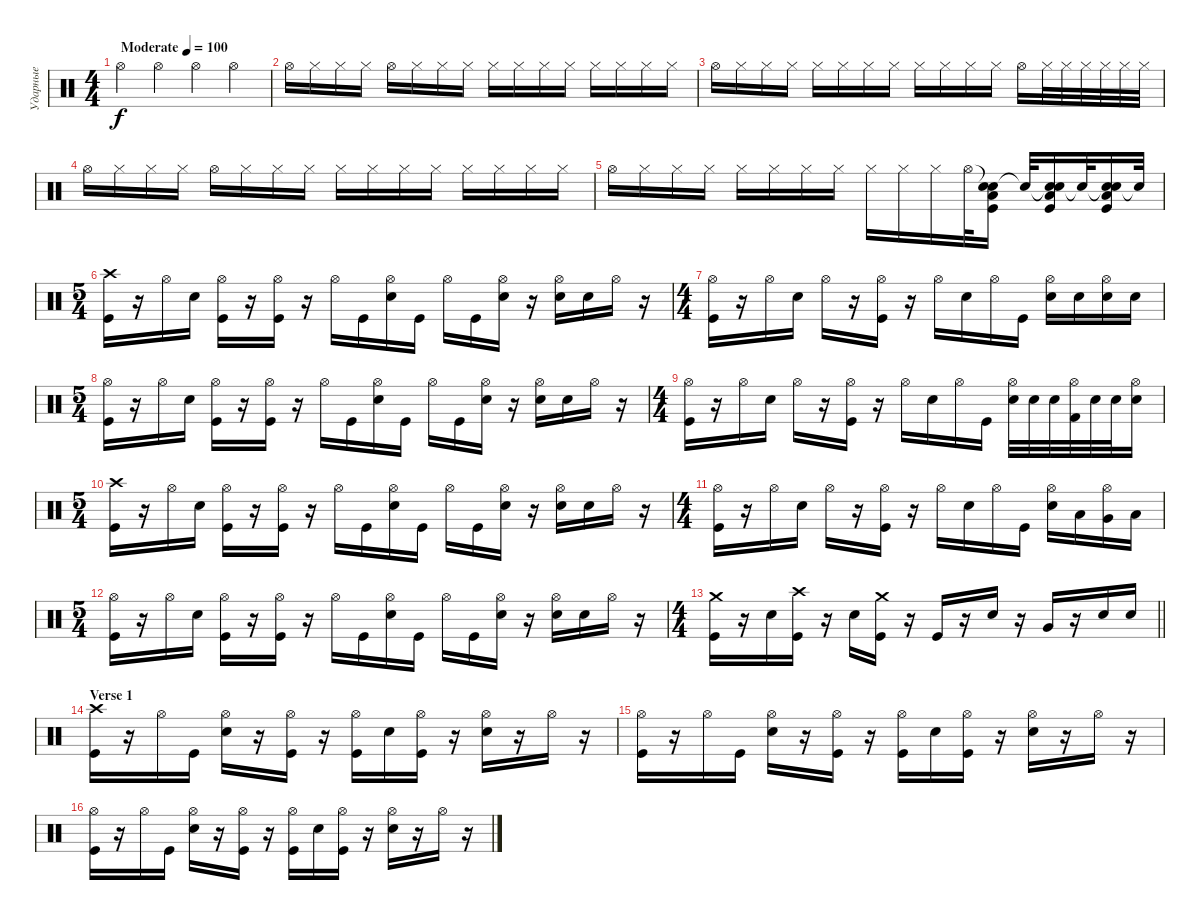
\track ("Ударные" "Ударные") {instrument percussion}
\staff {score}
\articulation defaults
\ts (4 4)
\tempo (100 "Moderate")
\clef neutral
\ks c "Hi-Hat (open)".4{dy f} "Hi-Hat (open)".4 "Hi-Hat (open)".4 "Hi-Hat (open)".4
|
"Hi-Hat (open)".16 "Hi-Hat (closed)".16 "Hi-Hat (closed)".16 "Hi-Hat (closed)".16 "Hi-Hat (open)".16 "Hi-Hat (closed)".16 "Hi-Hat (closed)".16 "Hi-Hat (closed)".16 "Hi-Hat (closed)".16 "Hi-Hat (closed)".16 "Hi-Hat (closed)".16 "Hi-Hat (closed)".16 "Hi-Hat (closed)".16 "Hi-Hat (closed)".16 "Hi-Hat (closed)".16 "Hi-Hat (closed)".16 |
"Hi-Hat (open)".16 "Hi-Hat (closed)".16 "Hi-Hat (closed)".16 "Hi-Hat (closed)".16 "Hi-Hat (closed)".16 "Hi-Hat (closed)".16 "Hi-Hat (closed)".16 "Hi-Hat (closed)".16 "Hi-Hat (closed)".16 "Hi-Hat (closed)".16 "Hi-Hat (closed)".16 "Hi-Hat (closed)".16 "Hi-Hat (open)".16 "Hi-Hat (closed)".32 "Hi-Hat (closed)".32 "Hi-Hat (closed)".32 "Hi-Hat (closed)".32 "Hi-Hat (closed)".32 "Hi-Hat (closed)".32 |
"Hi-Hat (open)".16 "Hi-Hat (closed)".16 "Hi-Hat (closed)".16 "Hi-Hat (closed)".16 "Hi-Hat (open)".16 "Hi-Hat (closed)".16 "Hi-Hat (closed)".16 "Hi-Hat (closed)".16 "Hi-Hat (closed)".16 "Hi-Hat (closed)".16 "Hi-Hat (closed)".16 "Hi-Hat (closed)".16 "Hi-Hat (closed)".16 "Hi-Hat (closed)".16 "Hi-Hat (closed)".16 "Hi-Hat (closed)".16 |
"Hi-Hat (open)".16 "Hi-Hat (closed)".16 "Hi-Hat (closed)".16 "Hi-Hat (closed)".16 "Hi-Hat (closed)".16 "Hi-Hat (closed)".16 "Hi-Hat (closed)".16 "Hi-Hat (closed)".16 "Hi-Hat (closed)".16 "Hi-Hat (closed)".16 "Hi-Hat (closed)".16 "Hi-Hat (open)".32 ("Snare (hit)"{t} "Snare (hit) 2" "Low Floor Tom (hit)" "Kick (hit)").16 "Snare (hit)"{t}.32 ("Snare (hit)"{t} "Snare (hit) 2" "Low Floor Tom (hit)" "Kick (hit)").16 "Snare (hit)"{t}.32 ("Snare (hit)"{t} "Snare (hit) 2" "Low Floor Tom (hit)" "Kick (hit)").16 "Snare (hit)"{t}.32 |
\ts (5 4)
("Crash high (hit)" "Kick (hit)").16 r.16 "Hi-Hat (open)".16 "Snare (hit) 2".16 ("Hi-Hat (open)" "Kick (hit)").16 r.16 ("Hi-Hat (open)" "Kick (hit)").16 r.16 "Hi-Hat (open)".16 "Kick (hit)".16 ("Hi-Hat (open)" "Snare (hit) 2").16 "Kick (hit)".16 "Hi-Hat (open)".16 "Kick (hit)".16 ("Hi-Hat (open)" "Snare (hit) 2").16 r.16 ("Hi-Hat (open)" "Snare (hit) 2").16 "Snare (hit) 2".16 "Hi-Hat (open)".16 r.16 |
\ts (4 4)
("Hi-Hat (open)" "Kick (hit)").16 r.16 "Hi-Hat (open)".16 "Snare (hit) 2".16 "Hi-Hat (open)".16 r.16 ("Hi-Hat (open)" "Kick (hit)").16 r.16 "Hi-Hat (open)".16 "Snare (hit) 2".16 "Hi-Hat (open)".16 "Kick (hit)".16 ("Hi-Hat (open)" "Snare (hit) 2").16 "Snare (hit) 2".16 ("Hi-Hat (open)" "Snare (hit) 2").16 "Snare (hit) 2".16 |
\ts (5 4)
("Hi-Hat (open)" "Kick (hit)").16 r.16 "Hi-Hat (open)".16 "Snare (hit) 2".16 ("Hi-Hat (open)" "Kick (hit)").16 r.16 ("Hi-Hat (open)" "Kick (hit)").16 r.16 "Hi-Hat (open)".16 "Kick (hit)".16 ("Hi-Hat (open)" "Snare (hit) 2").16 "Kick (hit)".16 "Hi-Hat (open)".16 "Kick (hit)".16 ("Hi-Hat (open)" "Snare (hit) 2").16 r.16 ("Hi-Hat (open)" "Snare (hit) 2").16 "Snare (hit) 2".16 "Hi-Hat (open)".16 r.16 |
\ts (4 4)
("Hi-Hat (open)" "Kick (hit)").16 r.16 "Hi-Hat (open)".16 "Snare (hit) 2".16 "Hi-Hat (open)".16 r.16 ("Hi-Hat (open)" "Kick (hit)").16 r.16 "Hi-Hat (open)".16 "Snare (hit) 2".16 "Hi-Hat (open)".16 "Kick (hit)".16 ("Hi-Hat (open)" "Snare (hit) 2").32 "Snare (hit) 2".32 "Snare (hit) 2".32 ("Hi-Hat (open)" "Kick (hit) 2").32 "Snare (hit) 2".32 "Snare (hit) 2".32 ("Hi-Hat (open)" "Snare (hit) 2").16 |
\ts (5 4)
("Crash high (hit)" "Kick (hit)").16 r.16 "Hi-Hat (open)".16 "Snare (hit) 2".16 ("Hi-Hat (open)" "Kick (hit)").16 r.16 ("Hi-Hat (open)" "Kick (hit)").16 r.16 "Hi-Hat (open)".16 "Kick (hit)".16 ("Hi-Hat (open)" "Snare (hit) 2").16 "Kick (hit)".16 "Hi-Hat (open)".16 "Kick (hit)".16 ("Hi-Hat (open)" "Snare (hit) 2").16 r.16 ("Hi-Hat (open)" "Snare (hit) 2").16 "Snare (hit) 2".16 "Hi-Hat (open)".16 r.16 |
\ts (4 4)
("Hi-Hat (open)" "Kick (hit)").16 r.16 "Hi-Hat (open)".16 "Snare (hit) 2".16 "Hi-Hat (open)".16 r.16 ("Hi-Hat (open)" "Kick (hit)").16 r.16 "Hi-Hat (open)".16 "Snare (hit) 2".16 "Hi-Hat (open)".16 "Kick (hit)".16 ("Hi-Hat (open)" "Snare (hit) 2").16 "Low Tom (hit)".16 ("Hi-Hat (open)" "Very Low Tom (hit)").16 "Low Floor Tom (hit)".16 |
\ts (5 4)
("Hi-Hat (open)" "Kick (hit)").16 r.16 "Hi-Hat (open)".16 "Snare (hit) 2".16 ("Hi-Hat (open)" "Kick (hit)").16 r.16 ("Hi-Hat (open)" "Kick (hit)").16 r.16 "Hi-Hat (open)".16 "Kick (hit)".16 ("Hi-Hat (open)" "Snare (hit) 2").16 "Kick (hit)".16 "Hi-Hat (open)".16 "Kick (hit)".16 ("Hi-Hat (open)" "Snare (hit) 2").16 r.16 ("Hi-Hat (open)" "Snare (hit) 2").16 "Snare (hit) 2".16 "Hi-Hat (open)".16 r.16 |
\ts (4 4)
\barLineRight lightlight
("Crash medium (hit)" "Kick (hit)").16 r.16 "Snare (hit) 2".16 ("Crash high (hit)" "Kick (hit)").16 r.16 "Snare (hit) 2".16 ("Crash medium (hit)" "Kick (hit)").16 r.16 "Kick (hit)".16 r.16 "Snare (hit) 2".16 r.16 "Very Low Tom (hit)".16 r.16 "Snare (hit) 2".16 "Snare (hit) 2".16 |
\section ("" "Verse 1")
("Crash high (hit)" "Kick (hit)").16 r.16 "Hi-Hat (open)".16 "Kick (hit)".16 ("Hi-Hat (open)" "Snare (hit) 2").16 r.16 ("Hi-Hat (open)" "Kick (hit)").16 r.16 ("Hi-Hat (open)" "Kick (hit)").16 "Snare (hit) 2".16 ("Hi-Hat (open)" "Kick (hit)").16 r.16 ("Hi-Hat (open)" "Snare (hit) 2").16 r.16 "Hi-Hat (open)".16 r.16 |
("Hi-Hat (open)" "Kick (hit)").16 r.16 "Hi-Hat (open)".16 "Kick (hit)".16 ("Hi-Hat (open)" "Snare (hit) 2").16 r.16 ("Hi-Hat (open)" "Kick (hit)").16 r.16 ("Hi-Hat (open)" "Kick (hit)").16 "Snare (hit) 2".16 ("Hi-Hat (open)" "Kick (hit)").16 r.16 ("Hi-Hat (open)" "Snare (hit) 2").16 r.16 "Hi-Hat (open)".16 r.16 |
("Hi-Hat (open)" "Kick (hit)").16 r.16 "Hi-Hat (open)".16 "Kick (hit)".16 ("Hi-Hat (open)" "Snare (hit) 2").16 r.16 ("Hi-Hat (open)" "Kick (hit)").16 r.16 ("Hi-Hat (open)" "Kick (hit)").16 "Snare (hit) 2".16 ("Hi-Hat (open)" "Kick (hit)").16 r.16 ("Hi-Hat (open)" "Snare (hit) 2").16 r.16 "Hi-Hat (open)".16 r.16
